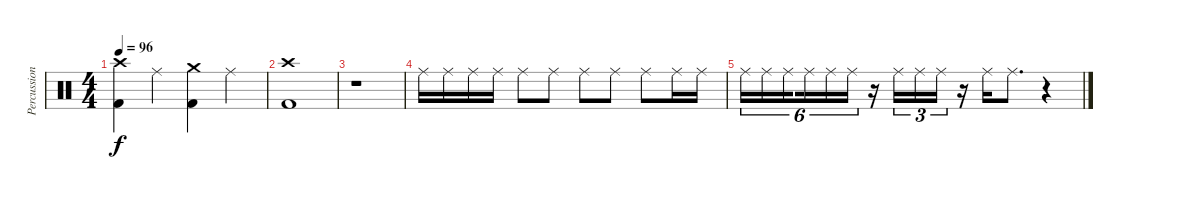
\track ("Percussion" "Percussion") {instrument percussion}
\staff {score}
\articulation defaults
\ts (4 4)
\tempo 96
\clef neutral
\ks c
("Crash high (hit)" "Kick (hit) 2").4{dy f} "Ride (middle)".4 ("Crash medium (hit)" "Kick (hit) 2").4 "Ride (middle)".4 |
("Crash high (hit)" "Kick (hit) 2").1 |
r.1 |
"Ride (middle)".16 "Ride (middle)".16 "Ride (middle)".16 "Ride (middle)".16 "Ride (middle)".8 "Ride (middle)".8 "Ride (middle)".8 "Ride (middle)".8 "Ride (middle)".8 "Ride (middle)".16 "Ride (middle)".16 |
"Ride (middle)".16{tu (6 4)} "Ride (middle)".16{tu (6 4)} "Ride (middle)".16{tu (6 4) beam splitsecondary} "Ride (middle)".16{tu (6 4)} "Ride (middle)".16{tu (6 4)} "Ride (middle)".16{tu (6 4)} r.16 "Ride (middle)".16{tu (3 2)} "Ride (middle)".16{tu (3 2)} "Ride (middle)".16{tu (3 2)} r.16 "Ride (middle)".16 "Ride (middle)".8{d} r.4
